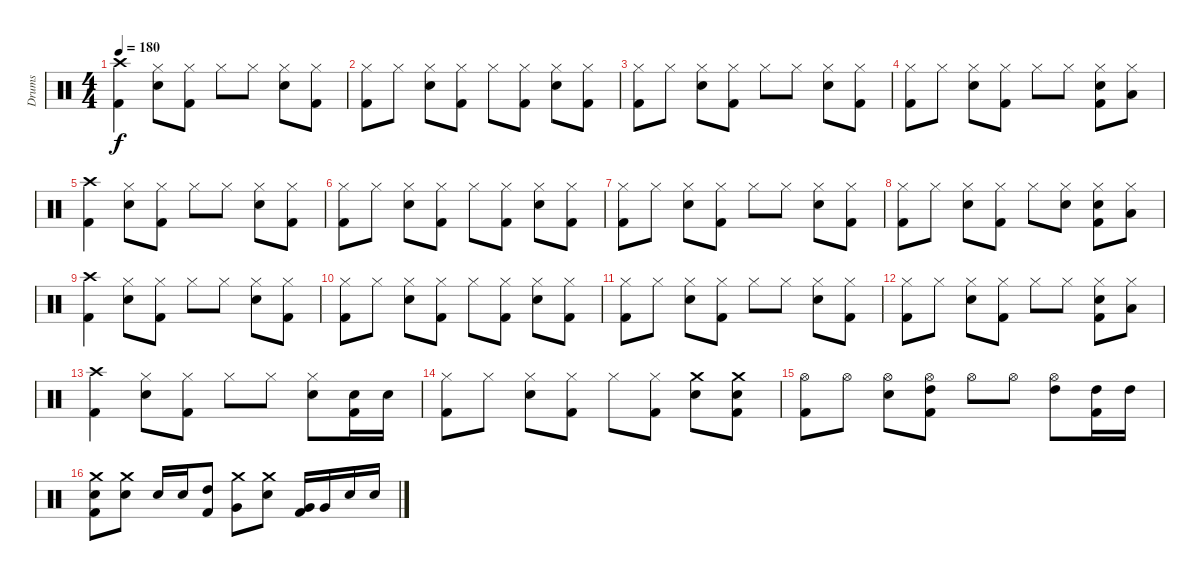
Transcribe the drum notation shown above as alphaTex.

\track ("Drums" "Drums") {instrument percussion}
\staff {score}
\articulation defaults
\ts (4 4)
\tempo 180
\clef neutral
\ks c
("Crash high (hit)" "Kick (hit) 2").4{dy f} ("Hi-Hat (closed)" "Electric Snare (hit)").8 ("Hi-Hat (closed)" "Kick (hit) 2").8 "Hi-Hat (closed)".8 "Hi-Hat (closed)".8 ("Hi-Hat (closed)" "Electric Snare (hit)").8 ("Hi-Hat (closed)" "Kick (hit) 2").8 |
("Hi-Hat (closed)" "Kick (hit) 2").8 "Hi-Hat (closed)".8 ("Hi-Hat (closed)" "Electric Snare (hit)").8 ("Hi-Hat (closed)" "Kick (hit) 2").8 "Hi-Hat (closed)".8 ("Hi-Hat (closed)" "Kick (hit) 2").8 ("Hi-Hat (closed)" "Electric Snare (hit)").8 ("Hi-Hat (closed)" "Kick (hit) 2").8 |
("Hi-Hat (closed)" "Kick (hit) 2").8 "Hi-Hat (closed)".8 ("Hi-Hat (closed)" "Electric Snare (hit)").8 ("Hi-Hat (closed)" "Kick (hit) 2").8 "Hi-Hat (closed)".8 "Hi-Hat (closed)".8 ("Hi-Hat (closed)" "Electric Snare (hit)").8 ("Hi-Hat (closed)" "Kick (hit) 2").8 |
("Hi-Hat (closed)" "Kick (hit) 2").8 "Hi-Hat (closed)".8 ("Hi-Hat (closed)" "Electric Snare (hit)").8 ("Hi-Hat (closed)" "Kick (hit) 2").8 "Hi-Hat (closed)".8 "Hi-Hat (closed)".8 ("Hi-Hat (closed)" "Electric Snare (hit)" "Kick (hit) 2").8 ("Hi-Hat (closed)" "Low Floor Tom (hit)").8 |
("Crash high (hit)" "Kick (hit) 2").4 ("Hi-Hat (closed)" "Electric Snare (hit)").8 ("Hi-Hat (closed)" "Kick (hit) 2").8 "Hi-Hat (closed)".8 "Hi-Hat (closed)".8 ("Hi-Hat (closed)" "Electric Snare (hit)").8 ("Hi-Hat (closed)" "Kick (hit) 2").8 |
("Hi-Hat (closed)" "Kick (hit) 2").8 "Hi-Hat (closed)".8 ("Hi-Hat (closed)" "Electric Snare (hit)").8 ("Hi-Hat (closed)" "Kick (hit) 2").8 "Hi-Hat (closed)".8 ("Hi-Hat (closed)" "Kick (hit) 2").8 ("Hi-Hat (closed)" "Electric Snare (hit)").8 ("Hi-Hat (closed)" "Kick (hit) 2").8 |
("Hi-Hat (closed)" "Kick (hit) 2").8 "Hi-Hat (closed)".8 ("Hi-Hat (closed)" "Electric Snare (hit)").8 ("Hi-Hat (closed)" "Kick (hit) 2").8 "Hi-Hat (closed)".8 "Hi-Hat (closed)".8 ("Hi-Hat (closed)" "Electric Snare (hit)").8 ("Hi-Hat (closed)" "Kick (hit) 2").8 |
("Hi-Hat (closed)" "Kick (hit) 2").8 "Hi-Hat (closed)".8 ("Hi-Hat (closed)" "Electric Snare (hit)").8 ("Hi-Hat (closed)" "Kick (hit) 2").8 "Hi-Hat (closed)".8 ("Hi-Hat (closed)" "Electric Snare (hit)").8 ("Hi-Hat (closed)" "Electric Snare (hit)" "Kick (hit) 2").8 ("Hi-Hat (closed)" "Low Floor Tom (hit)").8 |
("Crash high (hit)" "Kick (hit) 2").4 ("Hi-Hat (closed)" "Electric Snare (hit)").8 ("Hi-Hat (closed)" "Kick (hit) 2").8 "Hi-Hat (closed)".8 "Hi-Hat (closed)".8 ("Hi-Hat (closed)" "Electric Snare (hit)").8 ("Hi-Hat (closed)" "Kick (hit) 2").8 |
("Hi-Hat (closed)" "Kick (hit) 2").8 "Hi-Hat (closed)".8 ("Hi-Hat (closed)" "Electric Snare (hit)").8 ("Hi-Hat (closed)" "Kick (hit) 2").8 "Hi-Hat (closed)".8 ("Hi-Hat (closed)" "Kick (hit) 2").8 ("Hi-Hat (closed)" "Electric Snare (hit)").8 ("Hi-Hat (closed)" "Kick (hit) 2").8 |
("Hi-Hat (closed)" "Kick (hit) 2").8 "Hi-Hat (closed)".8 ("Hi-Hat (closed)" "Electric Snare (hit)").8 ("Hi-Hat (closed)" "Kick (hit) 2").8 "Hi-Hat (closed)".8 "Hi-Hat (closed)".8 ("Hi-Hat (closed)" "Electric Snare (hit)").8 ("Hi-Hat (closed)" "Kick (hit) 2").8 |
("Hi-Hat (closed)" "Kick (hit) 2").8 "Hi-Hat (closed)".8 ("Hi-Hat (closed)" "Electric Snare (hit)").8 ("Hi-Hat (closed)" "Kick (hit) 2").8 "Hi-Hat (closed)".8 "Hi-Hat (closed)".8 ("Hi-Hat (closed)" "Electric Snare (hit)" "Kick (hit) 2").8 ("Hi-Hat (closed)" "Low Floor Tom (hit)").8 |
("Crash high (hit)" "Kick (hit) 2").4 ("Hi-Hat (closed)" "Electric Snare (hit)").8 ("Hi-Hat (closed)" "Kick (hit) 2").8 "Hi-Hat (closed)".8 "Hi-Hat (closed)".8 ("Hi-Hat (closed)" "Electric Snare (hit)").8 ("Electric Snare (hit)" "Kick (hit) 2").16 "Electric Snare (hit)".16 |
("Hi-Hat (closed)" "Kick (hit) 2").8 "Hi-Hat (closed)".8 ("Hi-Hat (closed)" "Electric Snare (hit)").8 ("Hi-Hat (closed)" "Kick (hit) 2").8 "Hi-Hat (closed)".8 ("Hi-Hat (closed)" "Kick (hit) 2").8 ("Crash medium (hit)" "Electric Snare (hit)").8 ("Crash medium (hit)" "Electric Snare (hit)" "Kick (hit) 2").8 |
("Hi-Hat (open)" "Kick (hit) 2").8 "Hi-Hat (open)".8 ("Hi-Hat (open)" "Electric Snare (hit)").8 ("Hi-Hat (open)" "High Tom (hit)" "Kick (hit) 2").8 "Hi-Hat (open)".8 "Hi-Hat (open)".8 ("Hi-Hat (open)" "High Tom (hit)").8 ("High Tom (hit)" "Kick (hit) 2").16 "High Tom (hit)".16 |
("Crash medium (hit)" "Electric Snare (hit)" "Kick (hit) 2").8 ("Crash medium (hit)" "Electric Snare (hit)").8 "Electric Snare (hit)".16 "Electric Snare (hit)".16 ("High Tom (hit)" "Kick (hit) 2").8 ("Crash medium (hit)" "Very Low Tom (hit)").8 ("Crash medium (hit)" "Electric Snare (hit)").8 ("Very Low Tom (hit)" "Kick (hit) 2").16 "Very Low Tom (hit)".16 "Electric Snare (hit)".16 "Electric Snare (hit)".16
